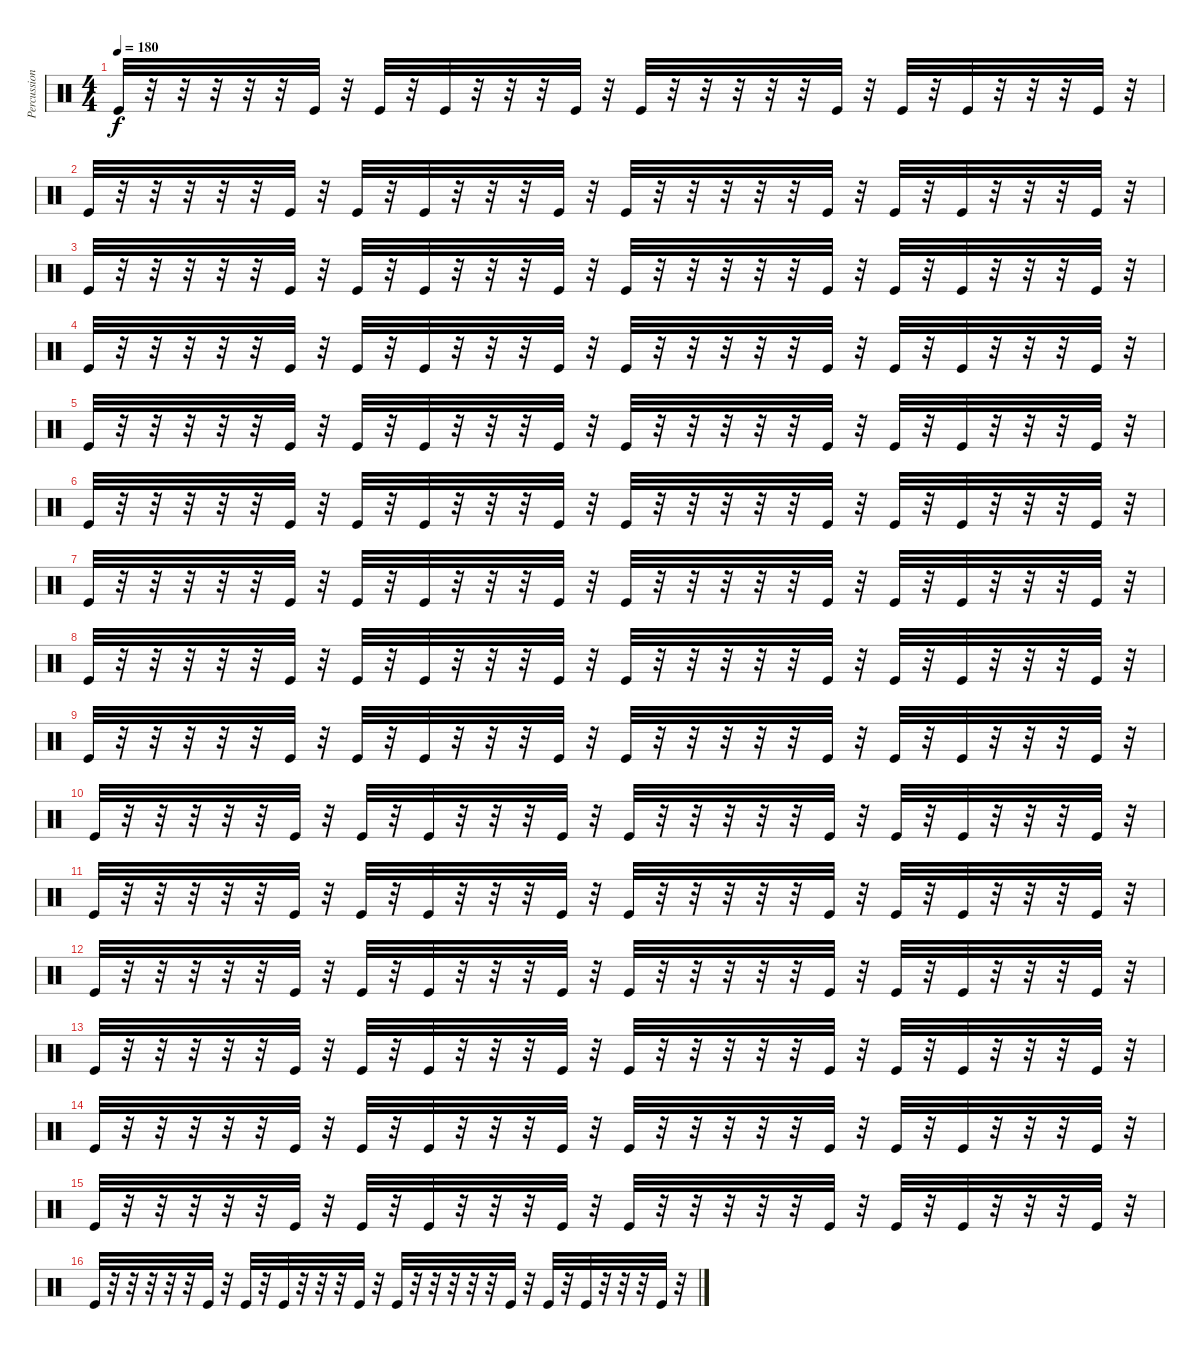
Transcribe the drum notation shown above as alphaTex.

\track ("Percussion" "Percussion") {instrument percussion}
\staff {score}
\articulation defaults
\ts (4 4)
\tempo 180
\clef neutral
\ks c "Kick (hit)".32{dy f}
r.32 r.32 r.32 r.32 r.32 "Kick (hit)".32 r.32 "Kick (hit)".32 r.32 "Kick (hit)".32 r.32 r.32 r.32 "Kick (hit)".32 r.32 "Kick (hit)".32 r.32 r.32 r.32 r.32 r.32 "Kick (hit)".32 r.32 "Kick (hit)".32 r.32 "Kick (hit)".32 r.32 r.32 r.32 "Kick (hit)".32 r.32 |
"Kick (hit)".32 r.32 r.32 r.32 r.32 r.32 "Kick (hit)".32 r.32 "Kick (hit)".32 r.32 "Kick (hit)".32 r.32 r.32 r.32 "Kick (hit)".32 r.32 "Kick (hit)".32 r.32 r.32 r.32 r.32 r.32 "Kick (hit)".32 r.32 "Kick (hit)".32 r.32 "Kick (hit)".32 r.32 r.32 r.32 "Kick (hit)".32 r.32 |
"Kick (hit)".32 r.32 r.32 r.32 r.32 r.32 "Kick (hit)".32 r.32 "Kick (hit)".32 r.32 "Kick (hit)".32 r.32 r.32 r.32 "Kick (hit)".32 r.32 "Kick (hit)".32 r.32 r.32 r.32 r.32 r.32 "Kick (hit)".32 r.32 "Kick (hit)".32 r.32 "Kick (hit)".32 r.32 r.32 r.32 "Kick (hit)".32 r.32 |
"Kick (hit)".32 r.32 r.32 r.32 r.32 r.32 "Kick (hit)".32 r.32 "Kick (hit)".32 r.32 "Kick (hit)".32 r.32 r.32 r.32 "Kick (hit)".32 r.32 "Kick (hit)".32 r.32 r.32 r.32 r.32 r.32 "Kick (hit)".32 r.32 "Kick (hit)".32 r.32 "Kick (hit)".32 r.32 r.32 r.32 "Kick (hit)".32 r.32 |
"Kick (hit)".32 r.32 r.32 r.32 r.32 r.32 "Kick (hit)".32 r.32 "Kick (hit)".32 r.32 "Kick (hit)".32 r.32 r.32 r.32 "Kick (hit)".32 r.32 "Kick (hit)".32 r.32 r.32 r.32 r.32 r.32 "Kick (hit)".32 r.32 "Kick (hit)".32 r.32 "Kick (hit)".32 r.32 r.32 r.32 "Kick (hit)".32 r.32 |
"Kick (hit)".32 r.32 r.32 r.32 r.32 r.32 "Kick (hit)".32 r.32 "Kick (hit)".32 r.32 "Kick (hit)".32 r.32 r.32 r.32 "Kick (hit)".32 r.32 "Kick (hit)".32 r.32 r.32 r.32 r.32 r.32 "Kick (hit)".32 r.32 "Kick (hit)".32 r.32 "Kick (hit)".32 r.32 r.32 r.32 "Kick (hit)".32 r.32 |
"Kick (hit)".32 r.32 r.32 r.32 r.32 r.32 "Kick (hit)".32 r.32 "Kick (hit)".32 r.32 "Kick (hit)".32 r.32 r.32 r.32 "Kick (hit)".32 r.32 "Kick (hit)".32 r.32 r.32 r.32 r.32 r.32 "Kick (hit)".32 r.32 "Kick (hit)".32 r.32 "Kick (hit)".32 r.32 r.32 r.32 "Kick (hit)".32 r.32 |
"Kick (hit)".32 r.32 r.32 r.32 r.32 r.32 "Kick (hit)".32 r.32 "Kick (hit)".32 r.32 "Kick (hit)".32 r.32 r.32 r.32 "Kick (hit)".32 r.32 "Kick (hit)".32 r.32 r.32 r.32 r.32 r.32 "Kick (hit)".32 r.32 "Kick (hit)".32 r.32 "Kick (hit)".32 r.32 r.32 r.32 "Kick (hit)".32 r.32 |
"Kick (hit)".32 r.32 r.32 r.32 r.32 r.32 "Kick (hit)".32 r.32 "Kick (hit)".32 r.32 "Kick (hit)".32 r.32 r.32 r.32 "Kick (hit)".32 r.32 "Kick (hit)".32 r.32 r.32 r.32 r.32 r.32 "Kick (hit)".32 r.32 "Kick (hit)".32 r.32 "Kick (hit)".32 r.32 r.32 r.32 "Kick (hit)".32 r.32 |
"Kick (hit)".32 r.32 r.32 r.32 r.32 r.32 "Kick (hit)".32 r.32 "Kick (hit)".32 r.32 "Kick (hit)".32 r.32 r.32 r.32 "Kick (hit)".32 r.32 "Kick (hit)".32 r.32 r.32 r.32 r.32 r.32 "Kick (hit)".32 r.32 "Kick (hit)".32 r.32 "Kick (hit)".32 r.32 r.32 r.32 "Kick (hit)".32 r.32 |
"Kick (hit)".32 r.32 r.32 r.32 r.32 r.32 "Kick (hit)".32 r.32 "Kick (hit)".32 r.32 "Kick (hit)".32 r.32 r.32 r.32 "Kick (hit)".32 r.32 "Kick (hit)".32 r.32 r.32 r.32 r.32 r.32 "Kick (hit)".32 r.32 "Kick (hit)".32 r.32 "Kick (hit)".32 r.32 r.32 r.32 "Kick (hit)".32 r.32 |
"Kick (hit)".32 r.32 r.32 r.32 r.32 r.32 "Kick (hit)".32 r.32 "Kick (hit)".32 r.32 "Kick (hit)".32 r.32 r.32 r.32 "Kick (hit)".32 r.32 "Kick (hit)".32 r.32 r.32 r.32 r.32 r.32 "Kick (hit)".32 r.32 "Kick (hit)".32 r.32 "Kick (hit)".32 r.32 r.32 r.32 "Kick (hit)".32 r.32 |
"Kick (hit)".32 r.32 r.32 r.32 r.32 r.32 "Kick (hit)".32 r.32 "Kick (hit)".32 r.32 "Kick (hit)".32 r.32 r.32 r.32 "Kick (hit)".32 r.32 "Kick (hit)".32 r.32 r.32 r.32 r.32 r.32 "Kick (hit)".32 r.32 "Kick (hit)".32 r.32 "Kick (hit)".32 r.32 r.32 r.32 "Kick (hit)".32 r.32 |
"Kick (hit)".32 r.32 r.32 r.32 r.32 r.32 "Kick (hit)".32 r.32 "Kick (hit)".32 r.32 "Kick (hit)".32 r.32 r.32 r.32 "Kick (hit)".32 r.32 "Kick (hit)".32 r.32 r.32 r.32 r.32 r.32 "Kick (hit)".32 r.32 "Kick (hit)".32 r.32 "Kick (hit)".32 r.32 r.32 r.32 "Kick (hit)".32 r.32 |
"Kick (hit)".32 r.32 r.32 r.32 r.32 r.32 "Kick (hit)".32 r.32 "Kick (hit)".32 r.32 "Kick (hit)".32 r.32 r.32 r.32 "Kick (hit)".32 r.32 "Kick (hit)".32 r.32 r.32 r.32 r.32 r.32 "Kick (hit)".32 r.32 "Kick (hit)".32 r.32 "Kick (hit)".32 r.32 r.32 r.32 "Kick (hit)".32 r.32 |
"Kick (hit)".32 r.32 r.32 r.32 r.32 r.32 "Kick (hit)".32 r.32 "Kick (hit)".32 r.32 "Kick (hit)".32 r.32 r.32 r.32 "Kick (hit)".32 r.32 "Kick (hit)".32 r.32 r.32 r.32 r.32 r.32 "Kick (hit)".32 r.32 "Kick (hit)".32 r.32 "Kick (hit)".32 r.32 r.32 r.32 "Kick (hit)".32 r.32
